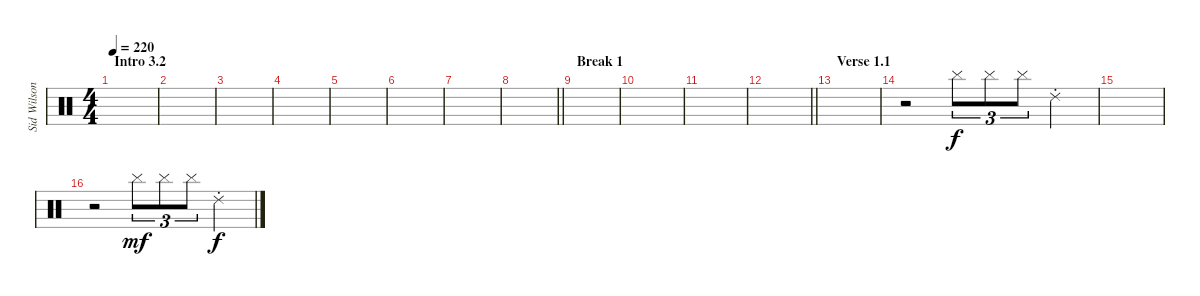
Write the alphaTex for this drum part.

\track ("Sid Wilson" "Sid Wilson") {instrument percussion}
\staff {score}
\articulation defaults
\ts (4 4)
\section ("" "Intro 3.2")
\tempo 220
\clef neutral
\ks c
|
|
|
|
|
|
|
\barLineRight lightlight
|
\section ("" "Break 1")
|
|
|
\barLineRight lightlight
|
\section ("" "Verse 1.1")
|
r.2 "Cymbal (hit)".8{tu (3 2)} "Cymbal (hit)".8{tu (3 2)} "Cymbal (hit)".8{tu (3 2)} "Ride (choke) 2".4{dy f} |
|
r.2 "Cymbal (hit)".8{tu (3 2) dy mf} "Cymbal (hit)".8{tu (3 2)} "Cymbal (hit)".8{tu (3 2)} "Ride (choke) 2".4{dy f}
